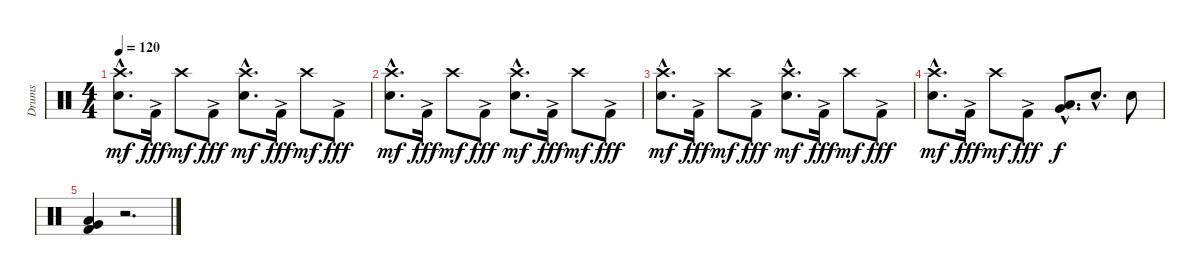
\track ("Drums" "Drums") {instrument percussion}
\staff {score}
\articulation defaults
\ts (4 4)
\tempo 120
\clef neutral
\ks c
("Crash high (hit)"{hac} "Snare (hit) 2"{hac}).8{d dy mf} "Kick (hit) 2"{ac}.16{dy fff} "Crash high (hit)".8{dy mf} "Kick (hit) 2"{ac}.8{dy fff} ("Crash high (hit)"{hac} "Snare (hit) 2"{hac}).8{d dy mf} "Kick (hit) 2"{ac}.16{dy fff} "Crash high (hit)".8{dy mf} "Kick (hit) 2"{ac}.8{dy fff} |
("Crash high (hit)"{hac} "Snare (hit) 2"{hac}).8{d dy mf} "Kick (hit) 2"{ac}.16{dy fff} "Crash high (hit)".8{dy mf} "Kick (hit) 2"{ac}.8{dy fff} ("Crash high (hit)"{hac} "Snare (hit) 2"{hac}).8{d dy mf} "Kick (hit) 2"{ac}.16{dy fff} "Crash high (hit)".8{dy mf} "Kick (hit) 2"{ac}.8{dy fff} |
("Crash high (hit)"{hac} "Snare (hit) 2"{hac}).8{d dy mf} "Kick (hit) 2"{ac}.16{dy fff} "Crash high (hit)".8{dy mf} "Kick (hit) 2"{ac}.8{dy fff} ("Crash high (hit)"{hac} "Snare (hit) 2"{hac}).8{d dy mf} "Kick (hit) 2"{ac}.16{dy fff} "Crash high (hit)".8{dy mf} "Kick (hit) 2"{ac}.8{dy fff} |
("Crash high (hit)"{hac} "Snare (hit) 2"{hac}).8{d dy mf} "Kick (hit) 2"{ac}.16{dy fff} "Crash high (hit)".8{dy mf} "Kick (hit) 2"{ac}.8{dy fff} ("Low Tom (hit)"{hac} "Very Low Tom (hit)"{hac}).8{d dy f} "Snare (hit) 2"{hac}.8{d} "Snare (hit) 2".8 |
("Very Low Tom (hit)" "Low Floor Tom (hit)" "Kick (hit) 2").4 r.2{d}
